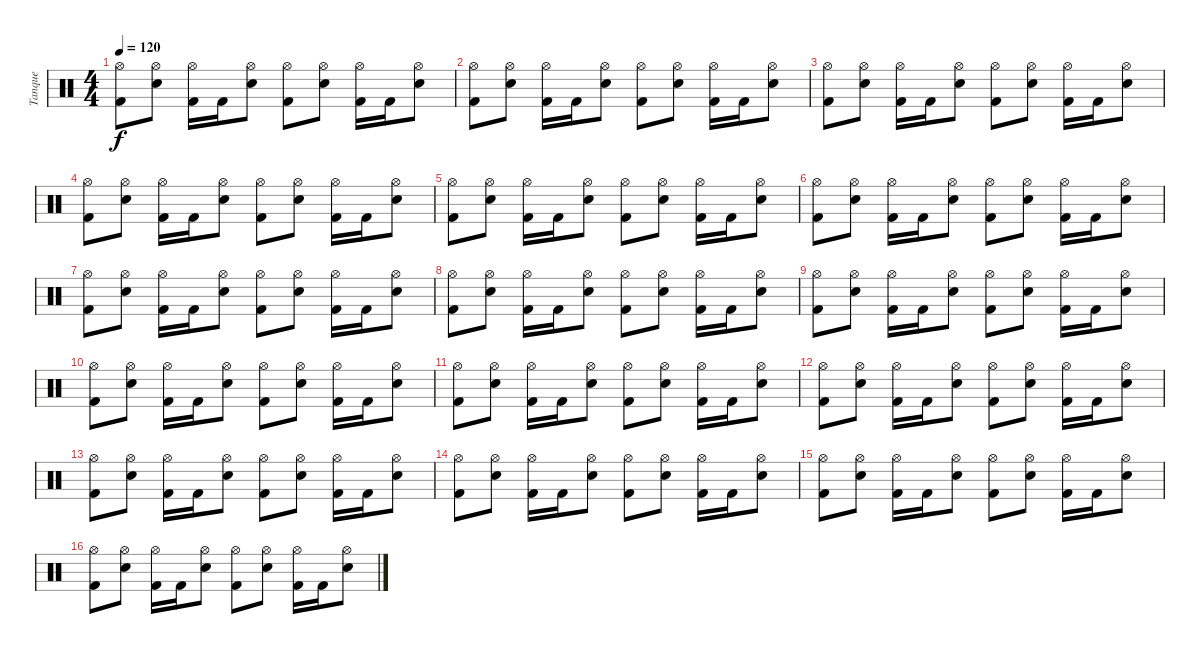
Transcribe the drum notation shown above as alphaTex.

\track ("Tanque" "Tanque") {instrument percussion}
\staff {score}
\articulation defaults
\ts (4 4)
\tempo 120
\clef neutral
\ks c
("Kick (hit) 2" "Hi-Hat (open)").8{dy f} ("Snare (hit) 2" "Hi-Hat (open)").8 ("Kick (hit) 2" "Hi-Hat (open)").16 "Kick (hit) 2".16 ("Snare (hit) 2" "Hi-Hat (open)").8 ("Kick (hit) 2" "Hi-Hat (open)").8 ("Snare (hit) 2" "Hi-Hat (open)").8 ("Kick (hit) 2" "Hi-Hat (open)").16 "Kick (hit) 2".16 ("Snare (hit) 2" "Hi-Hat (open)").8 |
("Kick (hit) 2" "Hi-Hat (open)").8 ("Snare (hit) 2" "Hi-Hat (open)").8 ("Kick (hit) 2" "Hi-Hat (open)").16 "Kick (hit) 2".16 ("Snare (hit) 2" "Hi-Hat (open)").8 ("Kick (hit) 2" "Hi-Hat (open)").8 ("Snare (hit) 2" "Hi-Hat (open)").8 ("Kick (hit) 2" "Hi-Hat (open)").16 "Kick (hit) 2".16 ("Snare (hit) 2" "Hi-Hat (open)").8 |
("Kick (hit) 2" "Hi-Hat (open)").8 ("Snare (hit) 2" "Hi-Hat (open)").8 ("Kick (hit) 2" "Hi-Hat (open)").16 "Kick (hit) 2".16 ("Snare (hit) 2" "Hi-Hat (open)").8 ("Kick (hit) 2" "Hi-Hat (open)").8 ("Snare (hit) 2" "Hi-Hat (open)").8 ("Kick (hit) 2" "Hi-Hat (open)").16 "Kick (hit) 2".16 ("Snare (hit) 2" "Hi-Hat (open)").8 |
("Kick (hit) 2" "Hi-Hat (open)").8 ("Snare (hit) 2" "Hi-Hat (open)").8 ("Kick (hit) 2" "Hi-Hat (open)").16 "Kick (hit) 2".16 ("Snare (hit) 2" "Hi-Hat (open)").8 ("Kick (hit) 2" "Hi-Hat (open)").8 ("Snare (hit) 2" "Hi-Hat (open)").8 ("Kick (hit) 2" "Hi-Hat (open)").16 "Kick (hit) 2".16 ("Snare (hit) 2" "Hi-Hat (open)").8 |
("Kick (hit) 2" "Hi-Hat (open)").8 ("Snare (hit) 2" "Hi-Hat (open)").8 ("Kick (hit) 2" "Hi-Hat (open)").16 "Kick (hit) 2".16 ("Snare (hit) 2" "Hi-Hat (open)").8 ("Kick (hit) 2" "Hi-Hat (open)").8 ("Snare (hit) 2" "Hi-Hat (open)").8 ("Kick (hit) 2" "Hi-Hat (open)").16 "Kick (hit) 2".16 ("Snare (hit) 2" "Hi-Hat (open)").8 |
("Kick (hit) 2" "Hi-Hat (open)").8 ("Snare (hit) 2" "Hi-Hat (open)").8 ("Kick (hit) 2" "Hi-Hat (open)").16 "Kick (hit) 2".16 ("Snare (hit) 2" "Hi-Hat (open)").8 ("Kick (hit) 2" "Hi-Hat (open)").8 ("Snare (hit) 2" "Hi-Hat (open)").8 ("Kick (hit) 2" "Hi-Hat (open)").16 "Kick (hit) 2".16 ("Snare (hit) 2" "Hi-Hat (open)").8 |
("Kick (hit) 2" "Hi-Hat (open)").8 ("Snare (hit) 2" "Hi-Hat (open)").8 ("Kick (hit) 2" "Hi-Hat (open)").16 "Kick (hit) 2".16 ("Snare (hit) 2" "Hi-Hat (open)").8 ("Kick (hit) 2" "Hi-Hat (open)").8 ("Snare (hit) 2" "Hi-Hat (open)").8 ("Kick (hit) 2" "Hi-Hat (open)").16 "Kick (hit) 2".16 ("Snare (hit) 2" "Hi-Hat (open)").8 |
("Kick (hit) 2" "Hi-Hat (open)").8 ("Snare (hit) 2" "Hi-Hat (open)").8 ("Kick (hit) 2" "Hi-Hat (open)").16 "Kick (hit) 2".16 ("Snare (hit) 2" "Hi-Hat (open)").8 ("Kick (hit) 2" "Hi-Hat (open)").8 ("Snare (hit) 2" "Hi-Hat (open)").8 ("Kick (hit) 2" "Hi-Hat (open)").16 "Kick (hit) 2".16 ("Snare (hit) 2" "Hi-Hat (open)").8 |
("Kick (hit) 2" "Hi-Hat (open)").8 ("Snare (hit) 2" "Hi-Hat (open)").8 ("Kick (hit) 2" "Hi-Hat (open)").16 "Kick (hit) 2".16 ("Snare (hit) 2" "Hi-Hat (open)").8 ("Kick (hit) 2" "Hi-Hat (open)").8 ("Snare (hit) 2" "Hi-Hat (open)").8 ("Kick (hit) 2" "Hi-Hat (open)").16 "Kick (hit) 2".16 ("Snare (hit) 2" "Hi-Hat (open)").8 |
("Kick (hit) 2" "Hi-Hat (open)").8 ("Snare (hit) 2" "Hi-Hat (open)").8 ("Kick (hit) 2" "Hi-Hat (open)").16 "Kick (hit) 2".16 ("Snare (hit) 2" "Hi-Hat (open)").8 ("Kick (hit) 2" "Hi-Hat (open)").8 ("Snare (hit) 2" "Hi-Hat (open)").8 ("Kick (hit) 2" "Hi-Hat (open)").16 "Kick (hit) 2".16 ("Snare (hit) 2" "Hi-Hat (open)").8 |
("Kick (hit) 2" "Hi-Hat (open)").8 ("Snare (hit) 2" "Hi-Hat (open)").8 ("Kick (hit) 2" "Hi-Hat (open)").16 "Kick (hit) 2".16 ("Snare (hit) 2" "Hi-Hat (open)").8 ("Kick (hit) 2" "Hi-Hat (open)").8 ("Snare (hit) 2" "Hi-Hat (open)").8 ("Kick (hit) 2" "Hi-Hat (open)").16 "Kick (hit) 2".16 ("Snare (hit) 2" "Hi-Hat (open)").8 |
("Kick (hit) 2" "Hi-Hat (open)").8 ("Snare (hit) 2" "Hi-Hat (open)").8 ("Kick (hit) 2" "Hi-Hat (open)").16 "Kick (hit) 2".16 ("Snare (hit) 2" "Hi-Hat (open)").8 ("Kick (hit) 2" "Hi-Hat (open)").8 ("Snare (hit) 2" "Hi-Hat (open)").8 ("Kick (hit) 2" "Hi-Hat (open)").16 "Kick (hit) 2".16 ("Snare (hit) 2" "Hi-Hat (open)").8 |
("Kick (hit) 2" "Hi-Hat (open)").8 ("Snare (hit) 2" "Hi-Hat (open)").8 ("Kick (hit) 2" "Hi-Hat (open)").16 "Kick (hit) 2".16 ("Snare (hit) 2" "Hi-Hat (open)").8 ("Kick (hit) 2" "Hi-Hat (open)").8 ("Snare (hit) 2" "Hi-Hat (open)").8 ("Kick (hit) 2" "Hi-Hat (open)").16 "Kick (hit) 2".16 ("Snare (hit) 2" "Hi-Hat (open)").8 |
("Kick (hit) 2" "Hi-Hat (open)").8 ("Snare (hit) 2" "Hi-Hat (open)").8 ("Kick (hit) 2" "Hi-Hat (open)").16 "Kick (hit) 2".16 ("Snare (hit) 2" "Hi-Hat (open)").8 ("Kick (hit) 2" "Hi-Hat (open)").8 ("Snare (hit) 2" "Hi-Hat (open)").8 ("Kick (hit) 2" "Hi-Hat (open)").16 "Kick (hit) 2".16 ("Snare (hit) 2" "Hi-Hat (open)").8 |
("Kick (hit) 2" "Hi-Hat (open)").8 ("Snare (hit) 2" "Hi-Hat (open)").8 ("Kick (hit) 2" "Hi-Hat (open)").16 "Kick (hit) 2".16 ("Snare (hit) 2" "Hi-Hat (open)").8 ("Kick (hit) 2" "Hi-Hat (open)").8 ("Snare (hit) 2" "Hi-Hat (open)").8 ("Kick (hit) 2" "Hi-Hat (open)").16 "Kick (hit) 2".16 ("Snare (hit) 2" "Hi-Hat (open)").8 |
("Kick (hit) 2" "Hi-Hat (open)").8 ("Snare (hit) 2" "Hi-Hat (open)").8 ("Kick (hit) 2" "Hi-Hat (open)").16 "Kick (hit) 2".16 ("Snare (hit) 2" "Hi-Hat (open)").8 ("Kick (hit) 2" "Hi-Hat (open)").8 ("Snare (hit) 2" "Hi-Hat (open)").8 ("Kick (hit) 2" "Hi-Hat (open)").16 "Kick (hit) 2".16 ("Snare (hit) 2" "Hi-Hat (open)").8
